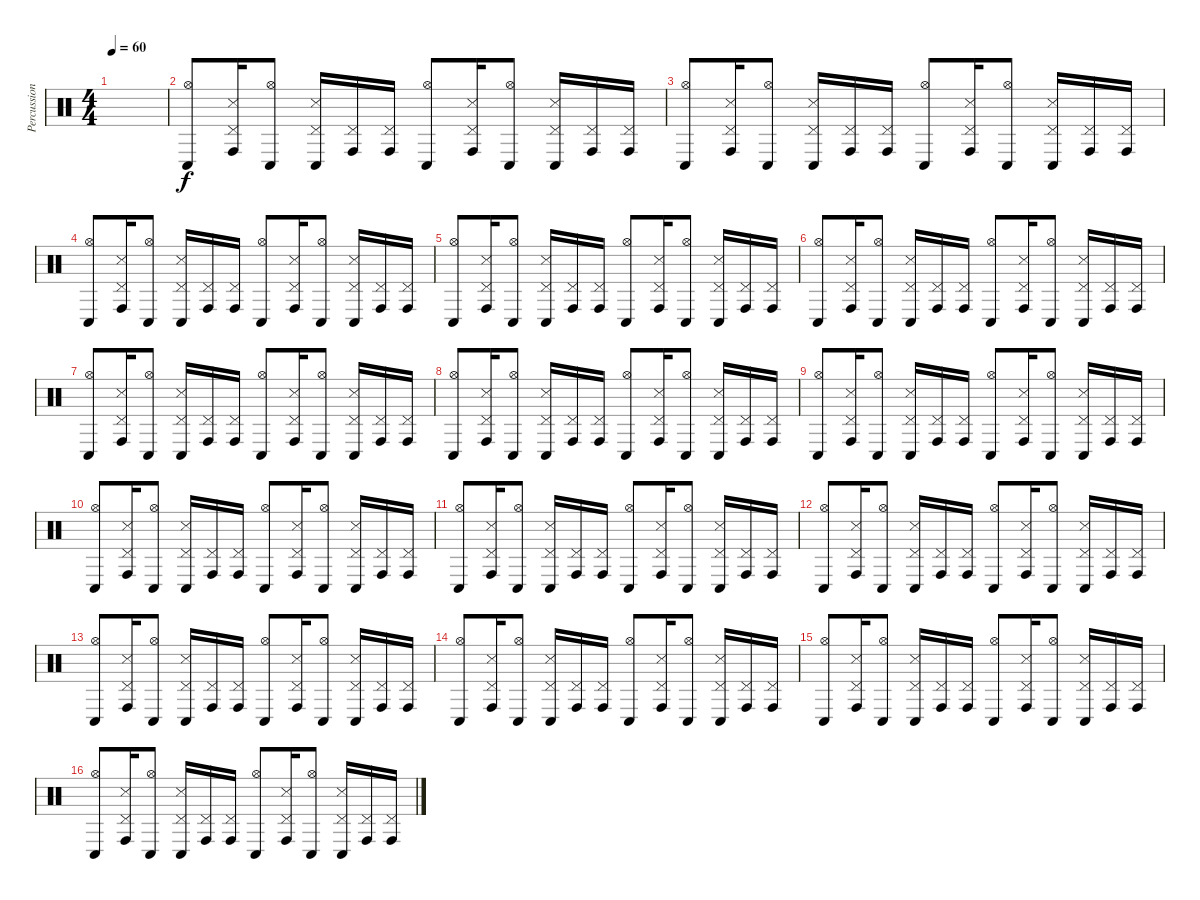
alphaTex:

\track ("Percussion" "Percussion") {instrument percussion}
\staff {score}
\articulation defaults
\ts (4 4)
\tempo 60
\clef neutral
\ks c
|
("Hi-Hat (open)" "Conga low (hit)").8 ("Pedal Hi-Hat (hit)" "Metronome (hit)" "Conga high (hit)").16 ("Hi-Hat (open)" "Conga low (hit)").8 ("Pedal Hi-Hat (hit)" "Metronome (hit)" "Conga low (hit)").16 ("Pedal Hi-Hat (hit)" "Conga high (hit)").16 ("Pedal Hi-Hat (hit)" "Conga high (hit)").16 ("Hi-Hat (open)" "Conga low (hit)").8 ("Pedal Hi-Hat (hit)" "Metronome (hit)" "Conga high (hit)").16 ("Hi-Hat (open)" "Conga low (hit)").8 ("Pedal Hi-Hat (hit)" "Metronome (hit)" "Conga low (hit)").16 ("Pedal Hi-Hat (hit)" "Conga high (hit)").16 ("Pedal Hi-Hat (hit)" "Conga high (hit)").16 |
("Hi-Hat (open)" "Conga low (hit)").8 ("Pedal Hi-Hat (hit)" "Metronome (hit)" "Conga high (hit)").16 ("Hi-Hat (open)" "Conga low (hit)").8 ("Pedal Hi-Hat (hit)" "Metronome (hit)" "Conga low (hit)").16 ("Pedal Hi-Hat (hit)" "Conga high (hit)").16 ("Pedal Hi-Hat (hit)" "Conga high (hit)").16 ("Hi-Hat (open)" "Conga low (hit)").8 ("Pedal Hi-Hat (hit)" "Metronome (hit)" "Conga high (hit)").16 ("Hi-Hat (open)" "Conga low (hit)").8 ("Pedal Hi-Hat (hit)" "Metronome (hit)" "Conga low (hit)").16 ("Pedal Hi-Hat (hit)" "Conga high (hit)").16 ("Pedal Hi-Hat (hit)" "Conga high (hit)").16 |
("Hi-Hat (open)" "Conga low (hit)").8 ("Pedal Hi-Hat (hit)" "Metronome (hit)" "Conga high (hit)").16 ("Hi-Hat (open)" "Conga low (hit)").8 ("Pedal Hi-Hat (hit)" "Metronome (hit)" "Conga low (hit)").16 ("Pedal Hi-Hat (hit)" "Conga high (hit)").16 ("Pedal Hi-Hat (hit)" "Conga high (hit)").16 ("Hi-Hat (open)" "Conga low (hit)").8 ("Pedal Hi-Hat (hit)" "Metronome (hit)" "Conga high (hit)").16 ("Hi-Hat (open)" "Conga low (hit)").8 ("Pedal Hi-Hat (hit)" "Metronome (hit)" "Conga low (hit)").16 ("Pedal Hi-Hat (hit)" "Conga high (hit)").16 ("Pedal Hi-Hat (hit)" "Conga high (hit)").16 |
("Hi-Hat (open)" "Conga low (hit)").8 ("Pedal Hi-Hat (hit)" "Metronome (hit)" "Conga high (hit)").16 ("Hi-Hat (open)" "Conga low (hit)").8 ("Pedal Hi-Hat (hit)" "Metronome (hit)" "Conga low (hit)").16 ("Pedal Hi-Hat (hit)" "Conga high (hit)").16 ("Pedal Hi-Hat (hit)" "Conga high (hit)").16 ("Hi-Hat (open)" "Conga low (hit)").8 ("Pedal Hi-Hat (hit)" "Metronome (hit)" "Conga high (hit)").16 ("Hi-Hat (open)" "Conga low (hit)").8 ("Pedal Hi-Hat (hit)" "Metronome (hit)" "Conga low (hit)").16 ("Pedal Hi-Hat (hit)" "Conga high (hit)").16 ("Pedal Hi-Hat (hit)" "Conga high (hit)").16 |
("Hi-Hat (open)" "Conga low (hit)").8 ("Pedal Hi-Hat (hit)" "Metronome (hit)" "Conga high (hit)").16 ("Hi-Hat (open)" "Conga low (hit)").8 ("Pedal Hi-Hat (hit)" "Metronome (hit)" "Conga low (hit)").16 ("Pedal Hi-Hat (hit)" "Conga high (hit)").16 ("Pedal Hi-Hat (hit)" "Conga high (hit)").16 ("Hi-Hat (open)" "Conga low (hit)").8 ("Pedal Hi-Hat (hit)" "Metronome (hit)" "Conga high (hit)").16 ("Hi-Hat (open)" "Conga low (hit)").8 ("Pedal Hi-Hat (hit)" "Metronome (hit)" "Conga low (hit)").16 ("Pedal Hi-Hat (hit)" "Conga high (hit)").16 ("Pedal Hi-Hat (hit)" "Conga high (hit)").16 |
("Hi-Hat (open)" "Conga low (hit)").8 ("Pedal Hi-Hat (hit)" "Metronome (hit)" "Conga high (hit)").16 ("Hi-Hat (open)" "Conga low (hit)").8 ("Pedal Hi-Hat (hit)" "Metronome (hit)" "Conga low (hit)").16 ("Pedal Hi-Hat (hit)" "Conga high (hit)").16 ("Pedal Hi-Hat (hit)" "Conga high (hit)").16 ("Hi-Hat (open)" "Conga low (hit)").8 ("Pedal Hi-Hat (hit)" "Metronome (hit)" "Conga high (hit)").16 ("Hi-Hat (open)" "Conga low (hit)").8 ("Pedal Hi-Hat (hit)" "Metronome (hit)" "Conga low (hit)").16 ("Pedal Hi-Hat (hit)" "Conga high (hit)").16 ("Pedal Hi-Hat (hit)" "Conga high (hit)").16 |
("Hi-Hat (open)" "Conga low (hit)").8 ("Pedal Hi-Hat (hit)" "Metronome (hit)" "Conga high (hit)").16 ("Hi-Hat (open)" "Conga low (hit)").8 ("Pedal Hi-Hat (hit)" "Metronome (hit)" "Conga low (hit)").16 ("Pedal Hi-Hat (hit)" "Conga high (hit)").16 ("Pedal Hi-Hat (hit)" "Conga high (hit)").16 ("Hi-Hat (open)" "Conga low (hit)").8 ("Pedal Hi-Hat (hit)" "Metronome (hit)" "Conga high (hit)").16 ("Hi-Hat (open)" "Conga low (hit)").8 ("Pedal Hi-Hat (hit)" "Metronome (hit)" "Conga low (hit)").16 ("Pedal Hi-Hat (hit)" "Conga high (hit)").16 ("Pedal Hi-Hat (hit)" "Conga high (hit)").16 |
("Hi-Hat (open)" "Conga low (hit)").8 ("Pedal Hi-Hat (hit)" "Metronome (hit)" "Conga high (hit)").16 ("Hi-Hat (open)" "Conga low (hit)").8 ("Pedal Hi-Hat (hit)" "Metronome (hit)" "Conga low (hit)").16 ("Pedal Hi-Hat (hit)" "Conga high (hit)").16 ("Pedal Hi-Hat (hit)" "Conga high (hit)").16 ("Hi-Hat (open)" "Conga low (hit)").8 ("Pedal Hi-Hat (hit)" "Metronome (hit)" "Conga high (hit)").16 ("Hi-Hat (open)" "Conga low (hit)").8 ("Pedal Hi-Hat (hit)" "Metronome (hit)" "Conga low (hit)").16 ("Pedal Hi-Hat (hit)" "Conga high (hit)").16 ("Pedal Hi-Hat (hit)" "Conga high (hit)").16 |
("Hi-Hat (open)" "Conga low (hit)").8 ("Pedal Hi-Hat (hit)" "Metronome (hit)" "Conga high (hit)").16 ("Hi-Hat (open)" "Conga low (hit)").8 ("Pedal Hi-Hat (hit)" "Metronome (hit)" "Conga low (hit)").16 ("Pedal Hi-Hat (hit)" "Conga high (hit)").16 ("Pedal Hi-Hat (hit)" "Conga high (hit)").16 ("Hi-Hat (open)" "Conga low (hit)").8 ("Pedal Hi-Hat (hit)" "Metronome (hit)" "Conga high (hit)").16 ("Hi-Hat (open)" "Conga low (hit)").8 ("Pedal Hi-Hat (hit)" "Metronome (hit)" "Conga low (hit)").16 ("Pedal Hi-Hat (hit)" "Conga high (hit)").16 ("Pedal Hi-Hat (hit)" "Conga high (hit)").16 |
("Hi-Hat (open)" "Conga low (hit)").8 ("Pedal Hi-Hat (hit)" "Metronome (hit)" "Conga high (hit)").16 ("Hi-Hat (open)" "Conga low (hit)").8 ("Pedal Hi-Hat (hit)" "Metronome (hit)" "Conga low (hit)").16 ("Pedal Hi-Hat (hit)" "Conga high (hit)").16 ("Pedal Hi-Hat (hit)" "Conga high (hit)").16 ("Hi-Hat (open)" "Conga low (hit)").8 ("Pedal Hi-Hat (hit)" "Metronome (hit)" "Conga high (hit)").16 ("Hi-Hat (open)" "Conga low (hit)").8 ("Pedal Hi-Hat (hit)" "Metronome (hit)" "Conga low (hit)").16 ("Pedal Hi-Hat (hit)" "Conga high (hit)").16 ("Pedal Hi-Hat (hit)" "Conga high (hit)").16 |
("Hi-Hat (open)" "Conga low (hit)").8 ("Pedal Hi-Hat (hit)" "Metronome (hit)" "Conga high (hit)").16 ("Hi-Hat (open)" "Conga low (hit)").8 ("Pedal Hi-Hat (hit)" "Metronome (hit)" "Conga low (hit)").16 ("Pedal Hi-Hat (hit)" "Conga high (hit)").16 ("Pedal Hi-Hat (hit)" "Conga high (hit)").16 ("Hi-Hat (open)" "Conga low (hit)").8 ("Pedal Hi-Hat (hit)" "Metronome (hit)" "Conga high (hit)").16 ("Hi-Hat (open)" "Conga low (hit)").8 ("Pedal Hi-Hat (hit)" "Metronome (hit)" "Conga low (hit)").16 ("Pedal Hi-Hat (hit)" "Conga high (hit)").16 ("Pedal Hi-Hat (hit)" "Conga high (hit)").16 |
("Hi-Hat (open)" "Conga low (hit)").8 ("Pedal Hi-Hat (hit)" "Metronome (hit)" "Conga high (hit)").16 ("Hi-Hat (open)" "Conga low (hit)").8 ("Pedal Hi-Hat (hit)" "Metronome (hit)" "Conga low (hit)").16 ("Pedal Hi-Hat (hit)" "Conga high (hit)").16 ("Pedal Hi-Hat (hit)" "Conga high (hit)").16 ("Hi-Hat (open)" "Conga low (hit)").8 ("Pedal Hi-Hat (hit)" "Metronome (hit)" "Conga high (hit)").16 ("Hi-Hat (open)" "Conga low (hit)").8 ("Pedal Hi-Hat (hit)" "Metronome (hit)" "Conga low (hit)").16 ("Pedal Hi-Hat (hit)" "Conga high (hit)").16 ("Pedal Hi-Hat (hit)" "Conga high (hit)").16 |
("Hi-Hat (open)" "Conga low (hit)").8 ("Pedal Hi-Hat (hit)" "Metronome (hit)" "Conga high (hit)").16 ("Hi-Hat (open)" "Conga low (hit)").8 ("Pedal Hi-Hat (hit)" "Metronome (hit)" "Conga low (hit)").16 ("Pedal Hi-Hat (hit)" "Conga high (hit)").16 ("Pedal Hi-Hat (hit)" "Conga high (hit)").16 ("Hi-Hat (open)" "Conga low (hit)").8 ("Pedal Hi-Hat (hit)" "Metronome (hit)" "Conga high (hit)").16 ("Hi-Hat (open)" "Conga low (hit)").8 ("Pedal Hi-Hat (hit)" "Metronome (hit)" "Conga low (hit)").16 ("Pedal Hi-Hat (hit)" "Conga high (hit)").16 ("Pedal Hi-Hat (hit)" "Conga high (hit)").16 |
("Hi-Hat (open)" "Conga low (hit)").8 ("Pedal Hi-Hat (hit)" "Metronome (hit)" "Conga high (hit)").16 ("Hi-Hat (open)" "Conga low (hit)").8 ("Pedal Hi-Hat (hit)" "Metronome (hit)" "Conga low (hit)").16 ("Pedal Hi-Hat (hit)" "Conga high (hit)").16 ("Pedal Hi-Hat (hit)" "Conga high (hit)").16 ("Hi-Hat (open)" "Conga low (hit)").8 ("Pedal Hi-Hat (hit)" "Metronome (hit)" "Conga high (hit)").16 ("Hi-Hat (open)" "Conga low (hit)").8 ("Pedal Hi-Hat (hit)" "Metronome (hit)" "Conga low (hit)").16 ("Pedal Hi-Hat (hit)" "Conga high (hit)").16 ("Pedal Hi-Hat (hit)" "Conga high (hit)").16 |
("Hi-Hat (open)" "Conga low (hit)").8 ("Pedal Hi-Hat (hit)" "Metronome (hit)" "Conga high (hit)").16 ("Hi-Hat (open)" "Conga low (hit)").8 ("Pedal Hi-Hat (hit)" "Metronome (hit)" "Conga low (hit)").16 ("Pedal Hi-Hat (hit)" "Conga high (hit)").16 ("Pedal Hi-Hat (hit)" "Conga high (hit)").16 ("Hi-Hat (open)" "Conga low (hit)").8 ("Pedal Hi-Hat (hit)" "Metronome (hit)" "Conga high (hit)").16 ("Hi-Hat (open)" "Conga low (hit)").8 ("Pedal Hi-Hat (hit)" "Metronome (hit)" "Conga low (hit)").16 ("Pedal Hi-Hat (hit)" "Conga high (hit)").16 ("Pedal Hi-Hat (hit)" "Conga high (hit)").16
